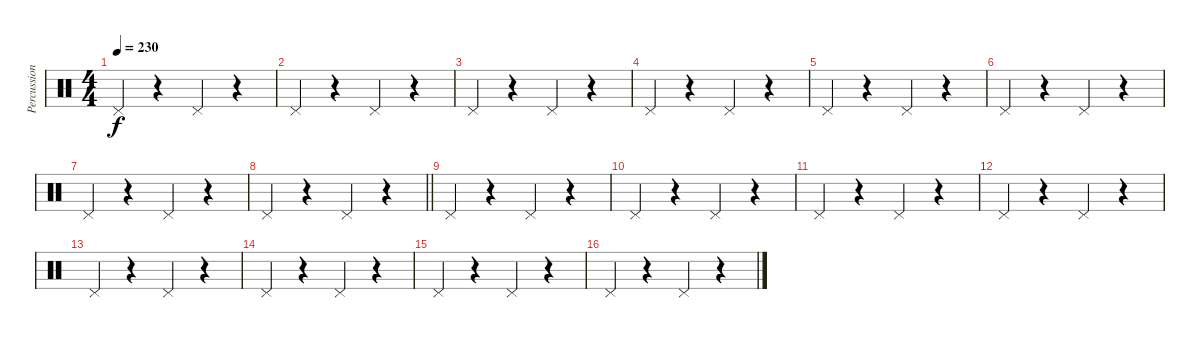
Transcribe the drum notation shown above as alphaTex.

\track ("Percussion" "Percussion") {instrument percussion}
\staff {score}
\articulation defaults
\ts (4 4)
\tempo 230
\clef neutral
\ks c "Pedal Hi-Hat (hit)".4{dy f}
r.4 "Pedal Hi-Hat (hit)".4 r.4 |
"Pedal Hi-Hat (hit)".4 r.4 "Pedal Hi-Hat (hit)".4 r.4 |
"Pedal Hi-Hat (hit)".4 r.4 "Pedal Hi-Hat (hit)".4 r.4 |
"Pedal Hi-Hat (hit)".4 r.4 "Pedal Hi-Hat (hit)".4 r.4 |
"Pedal Hi-Hat (hit)".4 r.4 "Pedal Hi-Hat (hit)".4 r.4 |
"Pedal Hi-Hat (hit)".4 r.4 "Pedal Hi-Hat (hit)".4 r.4 |
"Pedal Hi-Hat (hit)".4 r.4 "Pedal Hi-Hat (hit)".4 r.4 |
\barLineRight lightlight "Pedal Hi-Hat (hit)".4
r.4 "Pedal Hi-Hat (hit)".4 r.4 |
\section ("" "")
"Pedal Hi-Hat (hit)".4 r.4 "Pedal Hi-Hat (hit)".4 r.4 |
"Pedal Hi-Hat (hit)".4 r.4 "Pedal Hi-Hat (hit)".4 r.4 |
"Pedal Hi-Hat (hit)".4 r.4 "Pedal Hi-Hat (hit)".4 r.4 |
"Pedal Hi-Hat (hit)".4 r.4 "Pedal Hi-Hat (hit)".4 r.4 |
"Pedal Hi-Hat (hit)".4 r.4 "Pedal Hi-Hat (hit)".4 r.4 |
"Pedal Hi-Hat (hit)".4 r.4 "Pedal Hi-Hat (hit)".4 r.4 |
"Pedal Hi-Hat (hit)".4 r.4 "Pedal Hi-Hat (hit)".4 r.4 |
"Pedal Hi-Hat (hit)".4 r.4 "Pedal Hi-Hat (hit)".4 r.4
